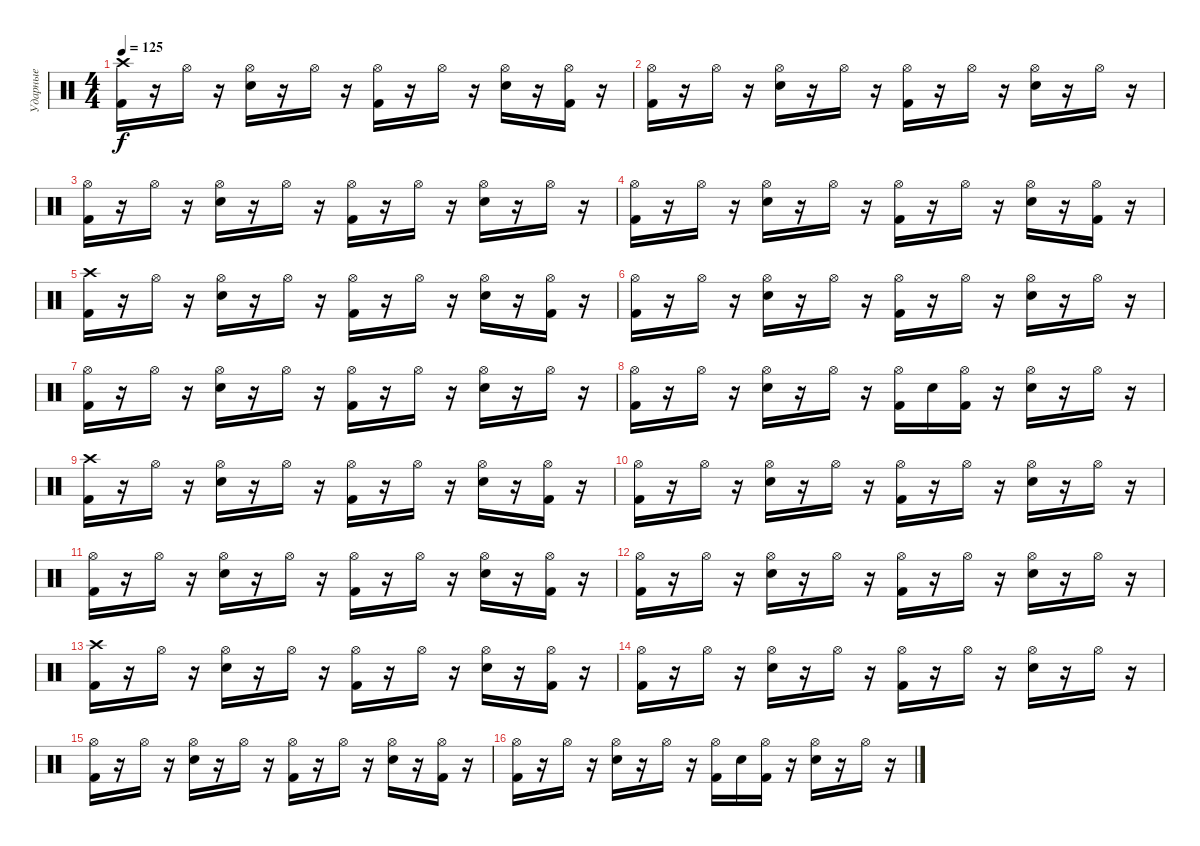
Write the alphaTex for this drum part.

\track ("Ударные" "Ударные") {instrument percussion}
\staff {score}
\articulation defaults
\ts (4 4)
\tempo 125
\clef neutral
\ks c
("Crash high (hit)" "Kick (hit) 2").16{dy f} r.16 "Hi-Hat (open)".16 r.16 ("Hi-Hat (open)" "Electric Snare (hit)").16 r.16 "Hi-Hat (open)".16 r.16 ("Hi-Hat (open)" "Kick (hit) 2").16 r.16 "Hi-Hat (open)".16 r.16 ("Hi-Hat (open)" "Electric Snare (hit)").16 r.16 ("Hi-Hat (open)" "Kick (hit) 2").16 r.16 |
("Hi-Hat (open)" "Kick (hit) 2").16 r.16 "Hi-Hat (open)".16 r.16 ("Hi-Hat (open)" "Electric Snare (hit)").16 r.16 "Hi-Hat (open)".16 r.16 ("Hi-Hat (open)" "Kick (hit) 2").16 r.16 "Hi-Hat (open)".16 r.16 ("Hi-Hat (open)" "Electric Snare (hit)").16 r.16 "Hi-Hat (open)".16 r.16 |
("Hi-Hat (open)" "Kick (hit) 2").16 r.16 "Hi-Hat (open)".16 r.16 ("Hi-Hat (open)" "Electric Snare (hit)").16 r.16 "Hi-Hat (open)".16 r.16 ("Hi-Hat (open)" "Kick (hit) 2").16 r.16 "Hi-Hat (open)".16 r.16 ("Hi-Hat (open)" "Electric Snare (hit)").16 r.16 "Hi-Hat (open)".16 r.16 |
("Hi-Hat (open)" "Kick (hit) 2").16 r.16 "Hi-Hat (open)".16 r.16 ("Hi-Hat (open)" "Electric Snare (hit)").16 r.16 "Hi-Hat (open)".16 r.16 ("Hi-Hat (open)" "Kick (hit) 2").16 r.16 "Hi-Hat (open)".16 r.16 ("Hi-Hat (open)" "Electric Snare (hit)").16 r.16 ("Hi-Hat (open)" "Kick (hit) 2").16 r.16 |
("Crash high (hit)" "Kick (hit) 2").16 r.16 "Hi-Hat (open)".16 r.16 ("Hi-Hat (open)" "Electric Snare (hit)").16 r.16 "Hi-Hat (open)".16 r.16 ("Hi-Hat (open)" "Kick (hit) 2").16 r.16 "Hi-Hat (open)".16 r.16 ("Hi-Hat (open)" "Electric Snare (hit)").16 r.16 ("Hi-Hat (open)" "Kick (hit) 2").16 r.16 |
("Hi-Hat (open)" "Kick (hit) 2").16 r.16 "Hi-Hat (open)".16 r.16 ("Hi-Hat (open)" "Electric Snare (hit)").16 r.16 "Hi-Hat (open)".16 r.16 ("Hi-Hat (open)" "Kick (hit) 2").16 r.16 "Hi-Hat (open)".16 r.16 ("Hi-Hat (open)" "Electric Snare (hit)").16 r.16 "Hi-Hat (open)".16 r.16 |
("Hi-Hat (open)" "Kick (hit) 2").16 r.16 "Hi-Hat (open)".16 r.16 ("Hi-Hat (open)" "Electric Snare (hit)").16 r.16 "Hi-Hat (open)".16 r.16 ("Hi-Hat (open)" "Kick (hit) 2").16 r.16 "Hi-Hat (open)".16 r.16 ("Hi-Hat (open)" "Electric Snare (hit)").16 r.16 "Hi-Hat (open)".16 r.16 |
("Hi-Hat (open)" "Kick (hit) 2").16 r.16 "Hi-Hat (open)".16 r.16 ("Hi-Hat (open)" "Electric Snare (hit)").16 r.16 "Hi-Hat (open)".16 r.16 ("Hi-Hat (open)" "Kick (hit) 2").16 "Electric Snare (hit)".16 ("Hi-Hat (open)" "Kick (hit) 2").16 r.16 ("Hi-Hat (open)" "Electric Snare (hit)").16 r.16 "Hi-Hat (open)".16 r.16 |
("Crash high (hit)" "Kick (hit) 2").16 r.16 "Hi-Hat (open)".16 r.16 ("Hi-Hat (open)" "Electric Snare (hit)").16 r.16 "Hi-Hat (open)".16 r.16 ("Hi-Hat (open)" "Kick (hit) 2").16 r.16 "Hi-Hat (open)".16 r.16 ("Hi-Hat (open)" "Electric Snare (hit)").16 r.16 ("Hi-Hat (open)" "Kick (hit) 2").16 r.16 |
("Hi-Hat (open)" "Kick (hit) 2").16 r.16 "Hi-Hat (open)".16 r.16 ("Hi-Hat (open)" "Electric Snare (hit)").16 r.16 "Hi-Hat (open)".16 r.16 ("Hi-Hat (open)" "Kick (hit) 2").16 r.16 "Hi-Hat (open)".16 r.16 ("Hi-Hat (open)" "Electric Snare (hit)").16 r.16 "Hi-Hat (open)".16 r.16 |
("Hi-Hat (open)" "Kick (hit) 2").16 r.16 "Hi-Hat (open)".16 r.16 ("Hi-Hat (open)" "Electric Snare (hit)").16 r.16 "Hi-Hat (open)".16 r.16 ("Hi-Hat (open)" "Kick (hit) 2").16 r.16 "Hi-Hat (open)".16 r.16 ("Hi-Hat (open)" "Electric Snare (hit)").16 r.16 ("Hi-Hat (open)" "Kick (hit) 2").16 r.16 |
("Hi-Hat (open)" "Kick (hit) 2").16 r.16 "Hi-Hat (open)".16 r.16 ("Hi-Hat (open)" "Electric Snare (hit)").16 r.16 "Hi-Hat (open)".16 r.16 ("Hi-Hat (open)" "Kick (hit) 2").16 r.16 "Hi-Hat (open)".16 r.16 ("Hi-Hat (open)" "Electric Snare (hit)").16 r.16 "Hi-Hat (open)".16 r.16 |
("Crash high (hit)" "Kick (hit) 2").16 r.16 "Hi-Hat (open)".16 r.16 ("Hi-Hat (open)" "Electric Snare (hit)").16 r.16 "Hi-Hat (open)".16 r.16 ("Hi-Hat (open)" "Kick (hit) 2").16 r.16 "Hi-Hat (open)".16 r.16 ("Hi-Hat (open)" "Electric Snare (hit)").16 r.16 ("Hi-Hat (open)" "Kick (hit) 2").16 r.16 |
("Hi-Hat (open)" "Kick (hit) 2").16 r.16 "Hi-Hat (open)".16 r.16 ("Hi-Hat (open)" "Electric Snare (hit)").16 r.16 "Hi-Hat (open)".16 r.16 ("Hi-Hat (open)" "Kick (hit) 2").16 r.16 "Hi-Hat (open)".16 r.16 ("Hi-Hat (open)" "Electric Snare (hit)").16 r.16 "Hi-Hat (open)".16 r.16 |
("Hi-Hat (open)" "Kick (hit) 2").16 r.16 "Hi-Hat (open)".16 r.16 ("Hi-Hat (open)" "Electric Snare (hit)").16 r.16 "Hi-Hat (open)".16 r.16 ("Hi-Hat (open)" "Kick (hit) 2").16 r.16 "Hi-Hat (open)".16 r.16 ("Hi-Hat (open)" "Electric Snare (hit)").16 r.16 ("Hi-Hat (open)" "Kick (hit) 2").16 r.16 |
("Hi-Hat (open)" "Kick (hit) 2").16 r.16 "Hi-Hat (open)".16 r.16 ("Hi-Hat (open)" "Electric Snare (hit)").16 r.16 "Hi-Hat (open)".16 r.16 ("Hi-Hat (open)" "Kick (hit) 2").16 "Electric Snare (hit)".16 ("Hi-Hat (open)" "Kick (hit) 2").16 r.16 ("Hi-Hat (open)" "Electric Snare (hit)").16 r.16 "Hi-Hat (open)".16 r.16
